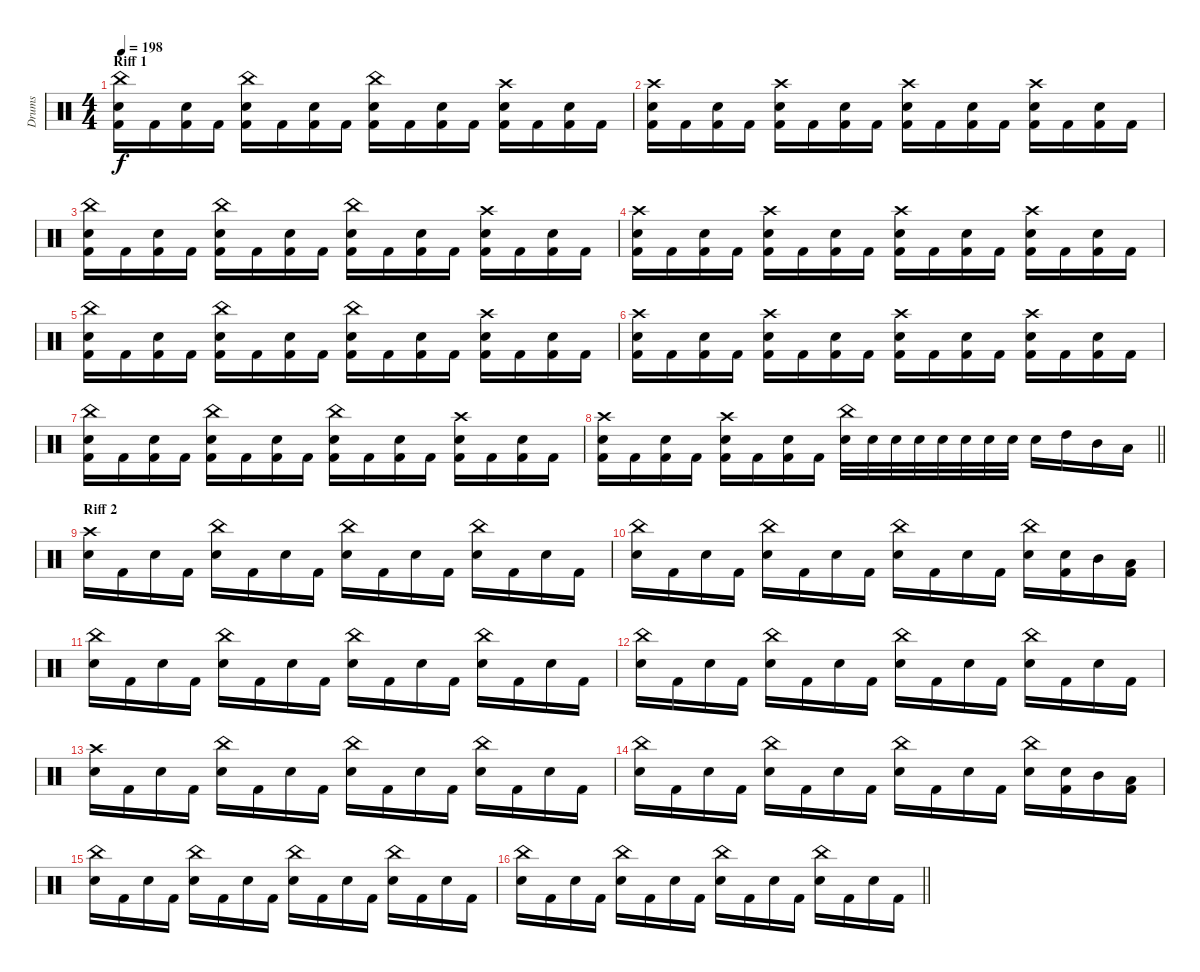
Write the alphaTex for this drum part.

\track ("Drums" "Drums") {instrument percussion}
\staff {score}
\articulation defaults
\ts (4 4)
\section ("" "Riff 1")
\tempo 198
\clef neutral
\ks c
("Kick (hit) 2" "Snare (hit) 2" "China (hit)").16{dy f} "Kick (hit) 2".16 ("Kick (hit) 2" "Snare (hit) 2").16 "Kick (hit) 2".16 ("Kick (hit) 2" "Snare (hit) 2" "China (hit)").16 "Kick (hit) 2".16 ("Kick (hit) 2" "Snare (hit) 2").16 "Kick (hit) 2".16 ("Kick (hit) 2" "Snare (hit) 2" "China (hit)").16 "Kick (hit) 2".16 ("Kick (hit) 2" "Snare (hit) 2").16 "Kick (hit) 2".16 ("Kick (hit) 2" "Snare (hit) 2" "Crash high (hit)").16 "Kick (hit) 2".16 ("Kick (hit) 2" "Snare (hit) 2").16 "Kick (hit) 2".16 |
("Kick (hit) 2" "Snare (hit) 2" "Crash high (hit)").16 "Kick (hit) 2".16 ("Kick (hit) 2" "Snare (hit) 2").16 "Kick (hit) 2".16 ("Kick (hit) 2" "Snare (hit) 2" "Crash high (hit)").16 "Kick (hit) 2".16 ("Kick (hit) 2" "Snare (hit) 2").16 "Kick (hit) 2".16 ("Kick (hit) 2" "Snare (hit) 2" "Crash high (hit)").16 "Kick (hit) 2".16 ("Kick (hit) 2" "Snare (hit) 2").16 "Kick (hit) 2".16 ("Kick (hit) 2" "Snare (hit) 2" "Crash high (hit)").16 "Kick (hit) 2".16 ("Kick (hit) 2" "Snare (hit) 2").16 "Kick (hit) 2".16 |
("Kick (hit) 2" "Snare (hit) 2" "China (hit)").16 "Kick (hit) 2".16 ("Kick (hit) 2" "Snare (hit) 2").16 "Kick (hit) 2".16 ("Kick (hit) 2" "Snare (hit) 2" "China (hit)").16 "Kick (hit) 2".16 ("Kick (hit) 2" "Snare (hit) 2").16 "Kick (hit) 2".16 ("Kick (hit) 2" "Snare (hit) 2" "China (hit)").16 "Kick (hit) 2".16 ("Kick (hit) 2" "Snare (hit) 2").16 "Kick (hit) 2".16 ("Kick (hit) 2" "Snare (hit) 2" "Crash high (hit)").16 "Kick (hit) 2".16 ("Kick (hit) 2" "Snare (hit) 2").16 "Kick (hit) 2".16 |
("Kick (hit) 2" "Snare (hit) 2" "Crash high (hit)").16 "Kick (hit) 2".16 ("Kick (hit) 2" "Snare (hit) 2").16 "Kick (hit) 2".16 ("Kick (hit) 2" "Snare (hit) 2" "Crash high (hit)").16 "Kick (hit) 2".16 ("Kick (hit) 2" "Snare (hit) 2").16 "Kick (hit) 2".16 ("Kick (hit) 2" "Snare (hit) 2" "Crash high (hit)").16 "Kick (hit) 2".16 ("Kick (hit) 2" "Snare (hit) 2").16 "Kick (hit) 2".16 ("Kick (hit) 2" "Snare (hit) 2" "Crash high (hit)").16 "Kick (hit) 2".16 ("Kick (hit) 2" "Snare (hit) 2").16 "Kick (hit) 2".16 |
("Kick (hit) 2" "Snare (hit) 2" "China (hit)").16 "Kick (hit) 2".16 ("Kick (hit) 2" "Snare (hit) 2").16 "Kick (hit) 2".16 ("Kick (hit) 2" "Snare (hit) 2" "China (hit)").16 "Kick (hit) 2".16 ("Kick (hit) 2" "Snare (hit) 2").16 "Kick (hit) 2".16 ("Kick (hit) 2" "Snare (hit) 2" "China (hit)").16 "Kick (hit) 2".16 ("Kick (hit) 2" "Snare (hit) 2").16 "Kick (hit) 2".16 ("Kick (hit) 2" "Snare (hit) 2" "Crash high (hit)").16 "Kick (hit) 2".16 ("Kick (hit) 2" "Snare (hit) 2").16 "Kick (hit) 2".16 |
("Kick (hit) 2" "Snare (hit) 2" "Crash high (hit)").16 "Kick (hit) 2".16 ("Kick (hit) 2" "Snare (hit) 2").16 "Kick (hit) 2".16 ("Kick (hit) 2" "Snare (hit) 2" "Crash high (hit)").16 "Kick (hit) 2".16 ("Kick (hit) 2" "Snare (hit) 2").16 "Kick (hit) 2".16 ("Kick (hit) 2" "Snare (hit) 2" "Crash high (hit)").16 "Kick (hit) 2".16 ("Kick (hit) 2" "Snare (hit) 2").16 "Kick (hit) 2".16 ("Kick (hit) 2" "Snare (hit) 2" "Crash high (hit)").16 "Kick (hit) 2".16 ("Kick (hit) 2" "Snare (hit) 2").16 "Kick (hit) 2".16 |
("Kick (hit) 2" "Snare (hit) 2" "China (hit)").16 "Kick (hit) 2".16 ("Kick (hit) 2" "Snare (hit) 2").16 "Kick (hit) 2".16 ("Kick (hit) 2" "Snare (hit) 2" "China (hit)").16 "Kick (hit) 2".16 ("Kick (hit) 2" "Snare (hit) 2").16 "Kick (hit) 2".16 ("Kick (hit) 2" "Snare (hit) 2" "China (hit)").16 "Kick (hit) 2".16 ("Kick (hit) 2" "Snare (hit) 2").16 "Kick (hit) 2".16 ("Kick (hit) 2" "Snare (hit) 2" "Crash high (hit)").16 "Kick (hit) 2".16 ("Kick (hit) 2" "Snare (hit) 2").16 "Kick (hit) 2".16 |
\barLineRight lightlight
("Kick (hit) 2" "Snare (hit) 2" "Crash high (hit)").16 "Kick (hit) 2".16 ("Kick (hit) 2" "Snare (hit) 2").16 "Kick (hit) 2".16 ("Kick (hit) 2" "Snare (hit) 2" "Crash high (hit)").16 "Kick (hit) 2".16 ("Kick (hit) 2" "Snare (hit) 2").16 "Kick (hit) 2".16 ("Snare (hit) 2" "China (hit)").32 "Snare (hit) 2".32 "Snare (hit) 2".32 "Snare (hit) 2".32 "Snare (hit) 2".32 "Snare (hit) 2".32 "Snare (hit) 2".32 "Snare (hit) 2".32 "Snare (hit) 2".16 "High Tom (hit)".16 "Mid Tom (hit)".16 "Low Tom (hit)".16 |
\section ("" "Riff 2")
("Snare (hit) 2" "Crash high (hit)").16 "Kick (hit) 2".16 "Snare (hit) 2".16 "Kick (hit) 2".16 ("Snare (hit) 2" "China (hit)").16 "Kick (hit) 2".16 "Snare (hit) 2".16 "Kick (hit) 2".16 ("Snare (hit) 2" "China (hit)").16 "Kick (hit) 2".16 "Snare (hit) 2".16 "Kick (hit) 2".16 ("Snare (hit) 2" "China (hit)").16 "Kick (hit) 2".16 "Snare (hit) 2".16 "Kick (hit) 2".16 |
("Snare (hit) 2" "China (hit)").16 "Kick (hit) 2".16 "Snare (hit) 2".16 "Kick (hit) 2".16 ("Snare (hit) 2" "China (hit)").16 "Kick (hit) 2".16 "Snare (hit) 2".16 "Kick (hit) 2".16 ("Snare (hit) 2" "China (hit)").16 "Kick (hit) 2".16 "Snare (hit) 2".16 "Kick (hit) 2".16 ("Snare (hit) 2" "China (hit)").16 ("Kick (hit) 2" "Snare (hit) 2").16 "Mid Tom (hit)".16 ("Kick (hit) 2" "Low Tom (hit)").16 |
("Snare (hit) 2" "China (hit)").16 "Kick (hit) 2".16 "Snare (hit) 2".16 "Kick (hit) 2".16 ("Snare (hit) 2" "China (hit)").16 "Kick (hit) 2".16 "Snare (hit) 2".16 "Kick (hit) 2".16 ("Snare (hit) 2" "China (hit)").16 "Kick (hit) 2".16 "Snare (hit) 2".16 "Kick (hit) 2".16 ("Snare (hit) 2" "China (hit)").16 "Kick (hit) 2".16 "Snare (hit) 2".16 "Kick (hit) 2".16 |
("Snare (hit) 2" "China (hit)").16 "Kick (hit) 2".16 "Snare (hit) 2".16 "Kick (hit) 2".16 ("Snare (hit) 2" "China (hit)").16 "Kick (hit) 2".16 "Snare (hit) 2".16 "Kick (hit) 2".16 ("Snare (hit) 2" "China (hit)").16 "Kick (hit) 2".16 "Snare (hit) 2".16 "Kick (hit) 2".16 ("Snare (hit) 2" "China (hit)").16 "Kick (hit) 2".16 "Snare (hit) 2".16 "Kick (hit) 2".16 |
("Snare (hit) 2" "Crash high (hit)").16 "Kick (hit) 2".16 "Snare (hit) 2".16 "Kick (hit) 2".16 ("Snare (hit) 2" "China (hit)").16 "Kick (hit) 2".16 "Snare (hit) 2".16 "Kick (hit) 2".16 ("Snare (hit) 2" "China (hit)").16 "Kick (hit) 2".16 "Snare (hit) 2".16 "Kick (hit) 2".16 ("Snare (hit) 2" "China (hit)").16 "Kick (hit) 2".16 "Snare (hit) 2".16 "Kick (hit) 2".16 |
("Snare (hit) 2" "China (hit)").16 "Kick (hit) 2".16 "Snare (hit) 2".16 "Kick (hit) 2".16 ("Snare (hit) 2" "China (hit)").16 "Kick (hit) 2".16 "Snare (hit) 2".16 "Kick (hit) 2".16 ("Snare (hit) 2" "China (hit)").16 "Kick (hit) 2".16 "Snare (hit) 2".16 "Kick (hit) 2".16 ("Snare (hit) 2" "China (hit)").16 ("Kick (hit) 2" "Snare (hit) 2").16 "Mid Tom (hit)".16 ("Kick (hit) 2" "Low Tom (hit)").16 |
("Snare (hit) 2" "China (hit)").16 "Kick (hit) 2".16 "Snare (hit) 2".16 "Kick (hit) 2".16 ("Snare (hit) 2" "China (hit)").16 "Kick (hit) 2".16 "Snare (hit) 2".16 "Kick (hit) 2".16 ("Snare (hit) 2" "China (hit)").16 "Kick (hit) 2".16 "Snare (hit) 2".16 "Kick (hit) 2".16 ("Snare (hit) 2" "China (hit)").16 "Kick (hit) 2".16 "Snare (hit) 2".16 "Kick (hit) 2".16 |
\barLineRight lightlight
("Snare (hit) 2" "China (hit)").16 "Kick (hit) 2".16 "Snare (hit) 2".16 "Kick (hit) 2".16 ("Snare (hit) 2" "China (hit)").16 "Kick (hit) 2".16 "Snare (hit) 2".16 "Kick (hit) 2".16 ("Snare (hit) 2" "China (hit)").16 "Kick (hit) 2".16 "Snare (hit) 2".16 "Kick (hit) 2".16 ("Snare (hit) 2" "China (hit)").16 "Kick (hit) 2".16 "Snare (hit) 2".16 "Kick (hit) 2".16
